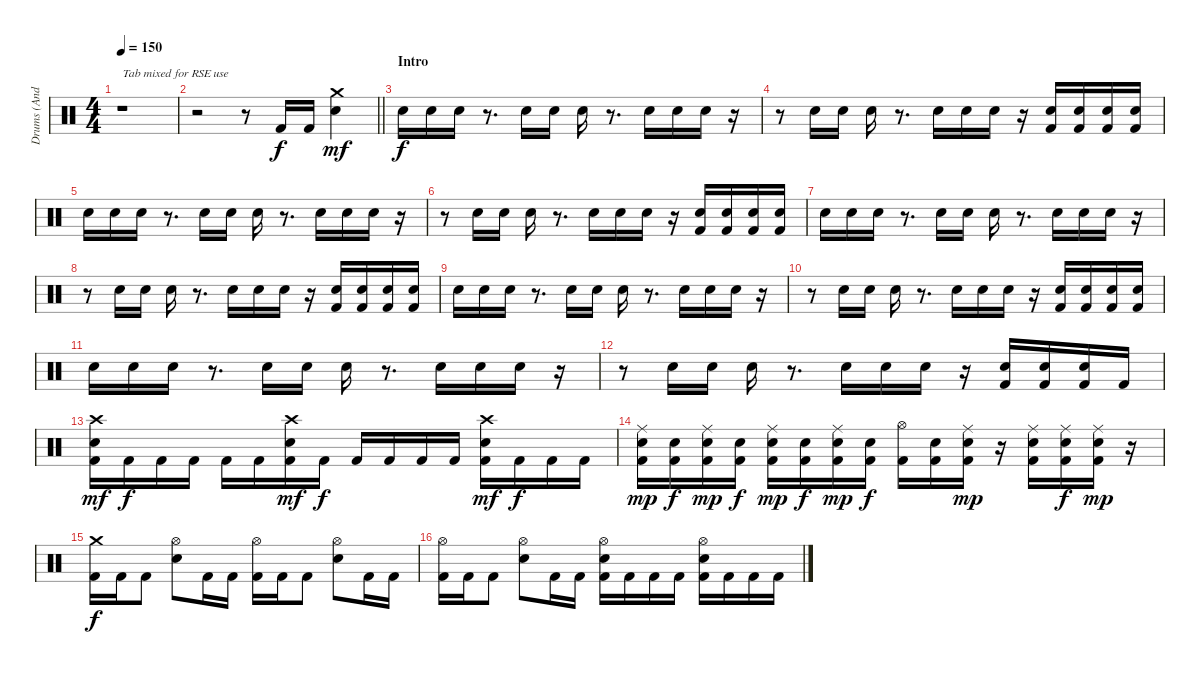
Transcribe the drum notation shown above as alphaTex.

\track ("Drums (Andy C)" "Drums (And") {instrument percussion}
\staff
\articulation defaults
\ts (4 4)
\tempo 150
\clef neutral
\ks c
r.1{txt "Tab mixed for RSE use" dy f} |
\barLineRight lightlight
r.2 r.8 "Kick (hit) 2".16 "Kick (hit) 2".16 ("Crash medium (hit)" "Electric Snare (hit)").4{dy mf} |
\section ("" "Intro")
"Electric Snare (hit)".16{dy f} "Electric Snare (hit)".16 "Electric Snare (hit)".16 r.8{d} "Electric Snare (hit)".16 "Electric Snare (hit)".16 "Electric Snare (hit)".16 r.8{d} "Electric Snare (hit)".16 "Electric Snare (hit)".16 "Electric Snare (hit)".16 r.16 |
r.8 "Electric Snare (hit)".16 "Electric Snare (hit)".16 "Electric Snare (hit)".16 r.8{d} "Electric Snare (hit)".16 "Electric Snare (hit)".16 "Electric Snare (hit)".16 r.16 ("Electric Snare (hit)" "Kick (hit) 2").16 ("Electric Snare (hit)" "Kick (hit) 2").16 ("Electric Snare (hit)" "Kick (hit) 2").16 ("Electric Snare (hit)" "Kick (hit) 2").16 |
"Electric Snare (hit)".16 "Electric Snare (hit)".16 "Electric Snare (hit)".16 r.8{d} "Electric Snare (hit)".16 "Electric Snare (hit)".16 "Electric Snare (hit)".16 r.8{d} "Electric Snare (hit)".16 "Electric Snare (hit)".16 "Electric Snare (hit)".16 r.16 |
r.8 "Electric Snare (hit)".16 "Electric Snare (hit)".16 "Electric Snare (hit)".16 r.8{d} "Electric Snare (hit)".16 "Electric Snare (hit)".16 "Electric Snare (hit)".16 r.16 ("Electric Snare (hit)" "Kick (hit) 2").16 ("Electric Snare (hit)" "Kick (hit) 2").16 ("Electric Snare (hit)" "Kick (hit) 2").16 ("Electric Snare (hit)" "Kick (hit) 2").16 |
"Electric Snare (hit)".16 "Electric Snare (hit)".16 "Electric Snare (hit)".16 r.8{d} "Electric Snare (hit)".16 "Electric Snare (hit)".16 "Electric Snare (hit)".16 r.8{d} "Electric Snare (hit)".16 "Electric Snare (hit)".16 "Electric Snare (hit)".16 r.16 |
r.8 "Electric Snare (hit)".16 "Electric Snare (hit)".16 "Electric Snare (hit)".16 r.8{d} "Electric Snare (hit)".16 "Electric Snare (hit)".16 "Electric Snare (hit)".16 r.16 ("Electric Snare (hit)" "Kick (hit) 2").16 ("Electric Snare (hit)" "Kick (hit) 2").16 ("Electric Snare (hit)" "Kick (hit) 2").16 ("Electric Snare (hit)" "Kick (hit) 2").16 |
"Electric Snare (hit)".16 "Electric Snare (hit)".16 "Electric Snare (hit)".16 r.8{d} "Electric Snare (hit)".16 "Electric Snare (hit)".16 "Electric Snare (hit)".16 r.8{d} "Electric Snare (hit)".16 "Electric Snare (hit)".16 "Electric Snare (hit)".16 r.16 |
r.8 "Electric Snare (hit)".16 "Electric Snare (hit)".16 "Electric Snare (hit)".16 r.8{d} "Electric Snare (hit)".16 "Electric Snare (hit)".16 "Electric Snare (hit)".16 r.16 ("Electric Snare (hit)" "Kick (hit) 2").16 ("Electric Snare (hit)" "Kick (hit) 2").16 ("Electric Snare (hit)" "Kick (hit) 2").16 ("Electric Snare (hit)" "Kick (hit) 2").16 |
"Electric Snare (hit)".16 "Electric Snare (hit)".16 "Electric Snare (hit)".16 r.8{d} "Electric Snare (hit)".16 "Electric Snare (hit)".16 "Electric Snare (hit)".16 r.8{d} "Electric Snare (hit)".16 "Electric Snare (hit)".16 "Electric Snare (hit)".16 r.16 |
r.8 "Electric Snare (hit)".16 "Electric Snare (hit)".16 "Electric Snare (hit)".16 r.8{d} "Electric Snare (hit)".16 "Electric Snare (hit)".16 "Electric Snare (hit)".16 r.16 ("Electric Snare (hit)" "Kick (hit) 2").16 ("Electric Snare (hit)" "Kick (hit) 2").16 ("Electric Snare (hit)" "Kick (hit) 2").16 "Kick (hit) 2".16 |
("Crash high (hit)" "Kick (hit) 2" "Electric Snare (hit)").16{dy mf} "Kick (hit) 2".16{dy f} "Kick (hit) 2".16 "Kick (hit) 2".16 "Kick (hit) 2".16 "Kick (hit) 2".16 ("Crash high (hit)" "Kick (hit) 2" "Electric Snare (hit)").16{dy mf} "Kick (hit) 2".16{dy f} "Kick (hit) 2".16 "Kick (hit) 2".16 "Kick (hit) 2".16 "Kick (hit) 2".16 ("Crash high (hit)" "Kick (hit) 2" "Electric Snare (hit)").16{dy mf} "Kick (hit) 2".16{dy f} "Kick (hit) 2".16 "Kick (hit) 2".16 |
("Ride (middle)" "Kick (hit) 2" "Electric Snare (hit)").16{dy mp} ("Kick (hit) 2" "Electric Snare (hit)").16{dy f} ("Ride (middle)" "Kick (hit) 2" "Electric Snare (hit)").16{dy mp} ("Kick (hit) 2" "Electric Snare (hit)").16{dy f} ("Ride (middle)" "Kick (hit) 2" "Electric Snare (hit)").16{dy mp} ("Kick (hit) 2" "Electric Snare (hit)").16{dy f} ("Ride (middle)" "Kick (hit) 2" "Electric Snare (hit)").16{dy mp} ("Kick (hit) 2" "Electric Snare (hit)").16{dy f} ("Hi-Hat (open)" "Kick (hit) 2").16 ("Kick (hit) 2" "Electric Snare (hit)").16 ("Ride (middle)" "Kick (hit) 2" "Electric Snare (hit)").16{dy mp} r.16 ("Ride (middle)" "Kick (hit) 2" "Electric Snare (hit)").16 ("Ride (middle)" "Kick (hit) 2" "Electric Snare (hit)").16{dy f} ("Ride (middle)" "Kick (hit) 2" "Electric Snare (hit)").16{dy mp} r.16 |
("Crash medium (hit)" "Kick (hit) 2").16{dy f} "Kick (hit) 2".16 "Kick (hit) 2".8 ("Hi-Hat (open)" "Electric Snare (hit)").8 "Kick (hit) 2".16 "Kick (hit) 2".16 ("Hi-Hat (open)" "Kick (hit) 2").16 "Kick (hit) 2".16 "Kick (hit) 2".8 ("Hi-Hat (open)" "Electric Snare (hit)").8 "Kick (hit) 2".16 "Kick (hit) 2".16 |
("Hi-Hat (open)" "Kick (hit) 2").16 "Kick (hit) 2".16 "Kick (hit) 2".8 ("Hi-Hat (open)" "Electric Snare (hit)").8 "Kick (hit) 2".16 "Kick (hit) 2".16 ("Hi-Hat (open)" "Kick (hit) 2" "Electric Snare (hit)").16 "Kick (hit) 2".16 "Kick (hit) 2".16 "Kick (hit) 2".16 ("Hi-Hat (open)" "Kick (hit) 2" "Electric Snare (hit)").16 "Kick (hit) 2".16 "Kick (hit) 2".16 "Kick (hit) 2".16
